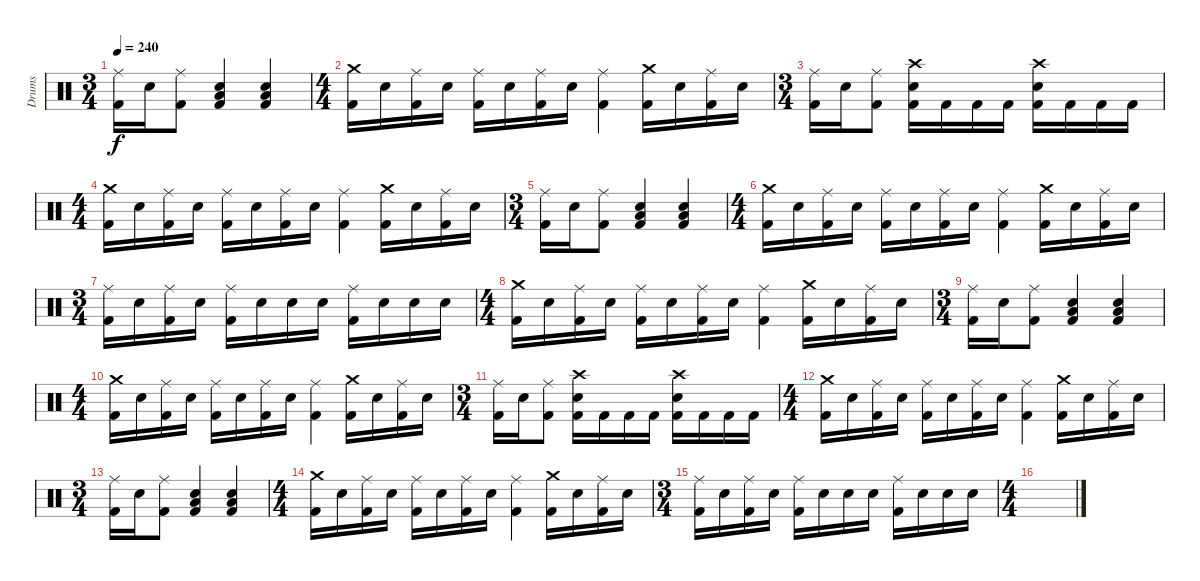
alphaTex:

\track ("Drums" "Drums") {instrument percussion}
\staff {score}
\articulation defaults
\ts (3 4)
\tempo 240
\clef neutral
\ks c
("Ride (middle)" "Kick (hit) 2").16{dy f} "Electric Snare (hit)".16 ("Ride (middle)" "Kick (hit) 2").8 ("Low Tom (hit)" "Electric Snare (hit)" "Kick (hit) 2").4 ("Low Tom (hit)" "Electric Snare (hit)" "Kick (hit) 2").4 |
\ts (4 4)
("Crash medium (hit)" "Kick (hit) 2").16 "Electric Snare (hit)".16 ("Ride (middle)" "Kick (hit) 2").16 "Electric Snare (hit)".16 ("Ride (middle)" "Kick (hit) 2").16 "Electric Snare (hit)".16 ("Ride (middle)" "Kick (hit) 2").16 "Electric Snare (hit)".16 ("Ride (middle)" "Kick (hit) 2").4 ("Crash medium (hit)" "Kick (hit) 2").16 "Electric Snare (hit)".16 ("Ride (middle)" "Kick (hit) 2").16 "Electric Snare (hit)".16 |
\ts (3 4)
("Ride (middle)" "Kick (hit) 2").16 "Electric Snare (hit)".16 ("Ride (middle)" "Kick (hit) 2").8 ("Crash high (hit)" "Electric Snare (hit)" "Kick (hit) 2").16 "Kick (hit) 2".16 "Kick (hit) 2".16 "Kick (hit) 2".16 ("Crash high (hit)" "Electric Snare (hit)" "Kick (hit) 2").16 "Kick (hit) 2".16 "Kick (hit) 2".16 "Kick (hit) 2".16 |
\ts (4 4)
("Crash medium (hit)" "Kick (hit) 2").16 "Electric Snare (hit)".16 ("Ride (middle)" "Kick (hit) 2").16 "Electric Snare (hit)".16 ("Ride (middle)" "Kick (hit) 2").16 "Electric Snare (hit)".16 ("Ride (middle)" "Kick (hit) 2").16 "Electric Snare (hit)".16 ("Ride (middle)" "Kick (hit) 2").4 ("Crash medium (hit)" "Kick (hit) 2").16 "Electric Snare (hit)".16 ("Ride (middle)" "Kick (hit) 2").16 "Electric Snare (hit)".16 |
\ts (3 4)
("Ride (middle)" "Kick (hit) 2").16 "Electric Snare (hit)".16 ("Ride (middle)" "Kick (hit) 2").8 ("Low Tom (hit)" "Electric Snare (hit)" "Kick (hit) 2").4{volume 7} ("Low Tom (hit)" "Electric Snare (hit)" "Kick (hit) 2").4 |
\ts (4 4)
("Crash medium (hit)" "Kick (hit) 2").16 "Electric Snare (hit)".16 ("Ride (middle)" "Kick (hit) 2").16 "Electric Snare (hit)".16 ("Ride (middle)" "Kick (hit) 2").16 "Electric Snare (hit)".16 ("Ride (middle)" "Kick (hit) 2").16 "Electric Snare (hit)".16 ("Ride (middle)" "Kick (hit) 2").4 ("Crash medium (hit)" "Kick (hit) 2").16 "Electric Snare (hit)".16 ("Ride (middle)" "Kick (hit) 2").16 "Electric Snare (hit)".16 |
\ts (3 4)
("Ride (middle)" "Kick (hit) 2").16 "Electric Snare (hit)".16 ("Ride (middle)" "Kick (hit) 2").16 "Electric Snare (hit)".16 ("Ride (middle)" "Kick (hit) 2").16 "Electric Snare (hit)".16 "Electric Snare (hit)".16 "Electric Snare (hit)".16 ("Ride (middle)" "Kick (hit) 2").16 "Electric Snare (hit)".16 "Electric Snare (hit)".16 "Electric Snare (hit)".16 |
\ts (4 4)
("Crash medium (hit)" "Kick (hit) 2").16 "Electric Snare (hit)".16 ("Ride (middle)" "Kick (hit) 2").16 "Electric Snare (hit)".16 ("Ride (middle)" "Kick (hit) 2").16 "Electric Snare (hit)".16 ("Ride (middle)" "Kick (hit) 2").16 "Electric Snare (hit)".16 ("Ride (middle)" "Kick (hit) 2").4 ("Crash medium (hit)" "Kick (hit) 2").16 "Electric Snare (hit)".16 ("Ride (middle)" "Kick (hit) 2").16 "Electric Snare (hit)".16 |
\ts (3 4)
("Ride (middle)" "Kick (hit) 2").16 "Electric Snare (hit)".16 ("Ride (middle)" "Kick (hit) 2").8 ("Low Tom (hit)" "Electric Snare (hit)" "Kick (hit) 2").4 ("Low Tom (hit)" "Electric Snare (hit)" "Kick (hit) 2").4 |
\ts (4 4)
("Crash medium (hit)" "Kick (hit) 2").16 "Electric Snare (hit)".16 ("Ride (middle)" "Kick (hit) 2").16 "Electric Snare (hit)".16 ("Ride (middle)" "Kick (hit) 2").16 "Electric Snare (hit)".16 ("Ride (middle)" "Kick (hit) 2").16 "Electric Snare (hit)".16 ("Ride (middle)" "Kick (hit) 2").4{volume 0} ("Crash medium (hit)" "Kick (hit) 2").16 "Electric Snare (hit)".16 ("Ride (middle)" "Kick (hit) 2").16 "Electric Snare (hit)".16 |
\ts (3 4)
("Ride (middle)" "Kick (hit) 2").16 "Electric Snare (hit)".16 ("Ride (middle)" "Kick (hit) 2").8 ("Crash high (hit)" "Electric Snare (hit)" "Kick (hit) 2").16 "Kick (hit) 2".16 "Kick (hit) 2".16 "Kick (hit) 2".16 ("Crash high (hit)" "Electric Snare (hit)" "Kick (hit) 2").16 "Kick (hit) 2".16 "Kick (hit) 2".16 "Kick (hit) 2".16 |
\ts (4 4)
("Crash medium (hit)" "Kick (hit) 2").16 "Electric Snare (hit)".16 ("Ride (middle)" "Kick (hit) 2").16 "Electric Snare (hit)".16 ("Ride (middle)" "Kick (hit) 2").16 "Electric Snare (hit)".16 ("Ride (middle)" "Kick (hit) 2").16 "Electric Snare (hit)".16 ("Ride (middle)" "Kick (hit) 2").4 ("Crash medium (hit)" "Kick (hit) 2").16 "Electric Snare (hit)".16 ("Ride (middle)" "Kick (hit) 2").16 "Electric Snare (hit)".16 |
\ts (3 4)
("Ride (middle)" "Kick (hit) 2").16 "Electric Snare (hit)".16 ("Ride (middle)" "Kick (hit) 2").8 ("Low Tom (hit)" "Electric Snare (hit)" "Kick (hit) 2").4 ("Low Tom (hit)" "Electric Snare (hit)" "Kick (hit) 2").4 |
\ts (4 4)
("Crash medium (hit)" "Kick (hit) 2").16 "Electric Snare (hit)".16 ("Ride (middle)" "Kick (hit) 2").16 "Electric Snare (hit)".16 ("Ride (middle)" "Kick (hit) 2").16 "Electric Snare (hit)".16 ("Ride (middle)" "Kick (hit) 2").16 "Electric Snare (hit)".16 ("Ride (middle)" "Kick (hit) 2").4 ("Crash medium (hit)" "Kick (hit) 2").16 "Electric Snare (hit)".16 ("Ride (middle)" "Kick (hit) 2").16 "Electric Snare (hit)".16 |
\ts (3 4)
("Ride (middle)" "Kick (hit) 2").16 "Electric Snare (hit)".16 ("Ride (middle)" "Kick (hit) 2").16 "Electric Snare (hit)".16 ("Ride (middle)" "Kick (hit) 2").16 "Electric Snare (hit)".16 "Electric Snare (hit)".16 "Electric Snare (hit)".16 ("Ride (middle)" "Kick (hit) 2").16 "Electric Snare (hit)".16 "Electric Snare (hit)".16 "Electric Snare (hit)".16 |
\ts (4 4)
